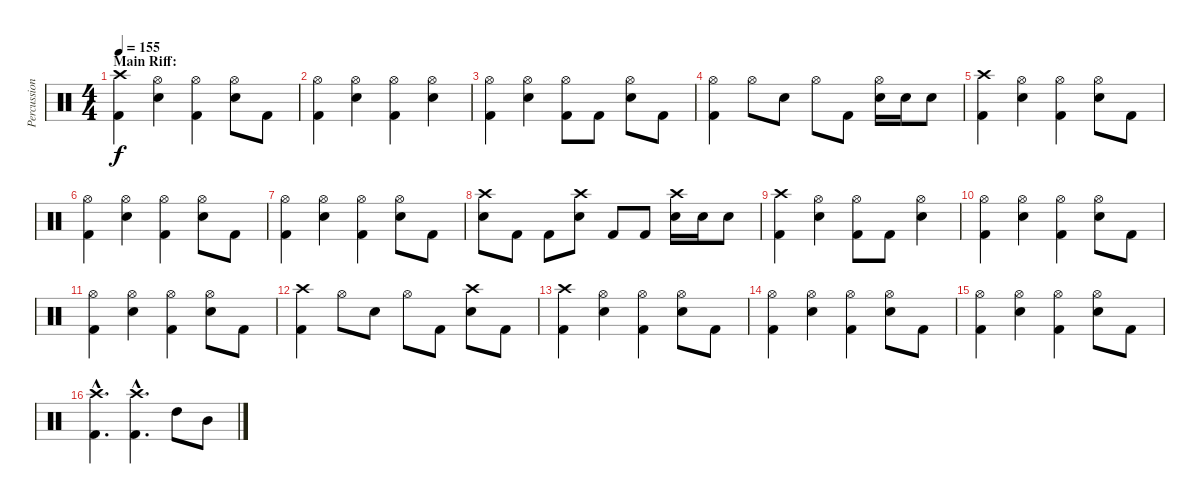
\track ("Percussion" "Percussion") {instrument percussion}
\staff {score}
\articulation defaults
\ts (4 4)
\section ("" "Main Riff:")
\tempo 155
\clef neutral
\ks c
("Crash high (hit)" "Kick (hit) 2").4{dy f} ("Hi-Hat (open)" "Electric Snare (hit)").4 ("Hi-Hat (open)" "Kick (hit) 2").4 ("Hi-Hat (open)" "Electric Snare (hit)").8 "Kick (hit) 2".8 |
("Hi-Hat (open)" "Kick (hit) 2").4 ("Hi-Hat (open)" "Electric Snare (hit)").4 ("Hi-Hat (open)" "Kick (hit) 2").4 ("Hi-Hat (open)" "Electric Snare (hit)").4 |
("Hi-Hat (open)" "Kick (hit) 2").4 ("Hi-Hat (open)" "Electric Snare (hit)").4 ("Hi-Hat (open)" "Kick (hit) 2").8 "Kick (hit) 2".8 ("Hi-Hat (open)" "Electric Snare (hit)").8 "Kick (hit) 2".8 |
("Hi-Hat (open)" "Kick (hit) 2").4 "Hi-Hat (open)".8 "Electric Snare (hit)".8 "Hi-Hat (open)".8 "Kick (hit) 2".8 ("Hi-Hat (open)" "Electric Snare (hit)").16 "Electric Snare (hit)".16 "Electric Snare (hit)".8 |
("Crash high (hit)" "Kick (hit) 2").4 ("Hi-Hat (open)" "Electric Snare (hit)").4 ("Hi-Hat (open)" "Kick (hit) 2").4 ("Hi-Hat (open)" "Electric Snare (hit)").8 "Kick (hit) 2".8 |
("Hi-Hat (open)" "Kick (hit) 2").4 ("Hi-Hat (open)" "Electric Snare (hit)").4 ("Hi-Hat (open)" "Kick (hit) 2").4 ("Hi-Hat (open)" "Electric Snare (hit)").8 "Kick (hit) 2".8 |
("Hi-Hat (open)" "Kick (hit) 2").4 ("Hi-Hat (open)" "Electric Snare (hit)").4 ("Hi-Hat (open)" "Kick (hit) 2").4 ("Hi-Hat (open)" "Electric Snare (hit)").8 "Kick (hit) 2".8 |
("Crash high (hit)" "Electric Snare (hit)").8 "Kick (hit) 2".8 "Kick (hit) 2".8 ("Crash high (hit)" "Electric Snare (hit)").8 "Kick (hit) 2".8 "Kick (hit) 2".8 ("Crash high (hit)" "Electric Snare (hit)").16 "Electric Snare (hit)".16 "Electric Snare (hit)".8 |
("Crash high (hit)" "Kick (hit) 2").4 ("Hi-Hat (open)" "Electric Snare (hit)").4 ("Hi-Hat (open)" "Kick (hit) 2").8 "Kick (hit) 2".8 ("Hi-Hat (open)" "Electric Snare (hit)").4 |
("Hi-Hat (open)" "Kick (hit) 2").4 ("Hi-Hat (open)" "Electric Snare (hit)").4 ("Hi-Hat (open)" "Kick (hit) 2").4 ("Hi-Hat (open)" "Electric Snare (hit)").8 "Kick (hit) 2".8 |
("Hi-Hat (open)" "Kick (hit) 2").4 ("Hi-Hat (open)" "Electric Snare (hit)").4 ("Hi-Hat (open)" "Kick (hit) 2").4 ("Hi-Hat (open)" "Electric Snare (hit)").8 "Kick (hit) 2".8 |
("Crash high (hit)" "Kick (hit) 2").4 "Hi-Hat (open)".8 "Electric Snare (hit)".8 "Hi-Hat (open)".8 "Kick (hit) 2".8 ("Crash high (hit)" "Electric Snare (hit)").8 "Kick (hit) 2".8 |
("Crash high (hit)" "Kick (hit) 2").4 ("Hi-Hat (open)" "Electric Snare (hit)").4 ("Hi-Hat (open)" "Kick (hit) 2").4 ("Hi-Hat (open)" "Electric Snare (hit)").8 "Kick (hit) 2".8 |
("Hi-Hat (open)" "Kick (hit) 2").4 ("Hi-Hat (open)" "Electric Snare (hit)").4 ("Hi-Hat (open)" "Kick (hit) 2").4 ("Hi-Hat (open)" "Electric Snare (hit)").8 "Kick (hit) 2".8 |
("Hi-Hat (open)" "Kick (hit) 2").4 ("Hi-Hat (open)" "Electric Snare (hit)").4 ("Hi-Hat (open)" "Kick (hit) 2").4 ("Hi-Hat (open)" "Electric Snare (hit)").8 "Kick (hit) 2".8 |
("Crash high (hit)"{hac} "Kick (hit) 2"{hac}).4{d} ("Crash high (hit)"{hac} "Kick (hit) 2"{hac}).4{d} "High Tom (hit)".8 "Mid Tom (hit)".8
